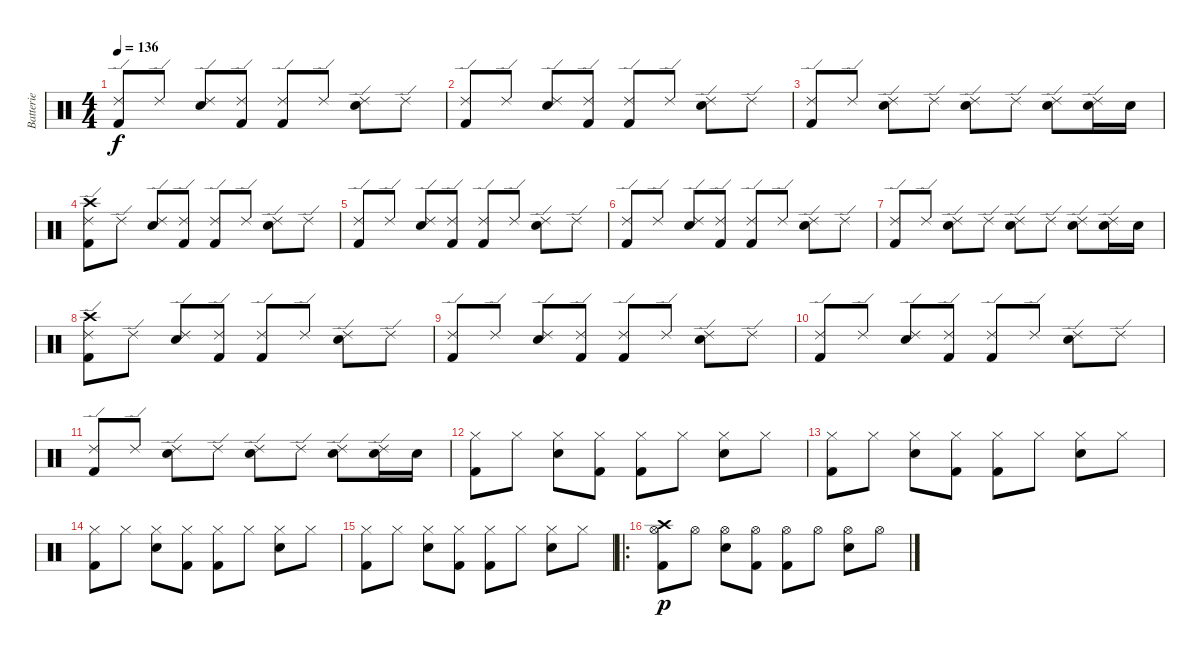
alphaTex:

\track ("Batterie" "Batterie") {instrument percussion}
\staff {score}
\articulation defaults
\ts (4 4)
\tempo 136
\clef neutral
\ks c
("Ride (edge) 2" "Kick (hit) 2").8{dy f} "Ride (edge) 2".8 ("Ride (edge) 2" "Electric Snare (hit)").8 ("Ride (edge) 2" "Kick (hit) 2").8 ("Ride (edge) 2" "Kick (hit) 2").8 "Ride (edge) 2".8 ("Ride (edge) 2" "Electric Snare (hit)").8 "Ride (edge) 2".8 |
("Ride (edge) 2" "Kick (hit) 2").8 "Ride (edge) 2".8 ("Ride (edge) 2" "Electric Snare (hit)").8 ("Ride (edge) 2" "Kick (hit) 2").8 ("Ride (edge) 2" "Kick (hit) 2").8 "Ride (edge) 2".8 ("Ride (edge) 2" "Electric Snare (hit)").8 "Ride (edge) 2".8 |
("Ride (edge) 2" "Kick (hit) 2").8 "Ride (edge) 2".8 ("Ride (edge) 2" "Electric Snare (hit)").8 "Ride (edge) 2".8 ("Ride (edge) 2" "Electric Snare (hit)").8 "Ride (edge) 2".8 ("Ride (edge) 2" "Electric Snare (hit)").8 ("Ride (edge) 2" "Electric Snare (hit)").16 "Electric Snare (hit)".16 |
("Crash high (hit)" "Ride (edge) 2" "Kick (hit) 2").8 "Ride (edge) 2".8 ("Ride (edge) 2" "Electric Snare (hit)").8 ("Ride (edge) 2" "Kick (hit) 2").8 ("Ride (edge) 2" "Kick (hit) 2").8 "Ride (edge) 2".8 ("Ride (edge) 2" "Electric Snare (hit)").8 "Ride (edge) 2".8 |
("Ride (edge) 2" "Kick (hit) 2").8 "Ride (edge) 2".8 ("Ride (edge) 2" "Electric Snare (hit)").8 ("Ride (edge) 2" "Kick (hit) 2").8 ("Ride (edge) 2" "Kick (hit) 2").8 "Ride (edge) 2".8 ("Ride (edge) 2" "Electric Snare (hit)").8 "Ride (edge) 2".8 |
("Ride (edge) 2" "Kick (hit) 2").8 "Ride (edge) 2".8 ("Ride (edge) 2" "Electric Snare (hit)").8 ("Ride (edge) 2" "Kick (hit) 2").8 ("Ride (edge) 2" "Kick (hit) 2").8 "Ride (edge) 2".8 ("Ride (edge) 2" "Electric Snare (hit)").8 "Ride (edge) 2".8 |
("Ride (edge) 2" "Kick (hit) 2").8 "Ride (edge) 2".8 ("Ride (edge) 2" "Electric Snare (hit)").8 "Ride (edge) 2".8 ("Ride (edge) 2" "Electric Snare (hit)").8 "Ride (edge) 2".8 ("Ride (edge) 2" "Electric Snare (hit)").8 ("Ride (edge) 2" "Electric Snare (hit)").16 "Electric Snare (hit)".16 |
("Crash high (hit)" "Ride (edge) 2" "Kick (hit) 2").8 "Ride (edge) 2".8 ("Ride (edge) 2" "Electric Snare (hit)").8 ("Ride (edge) 2" "Kick (hit) 2").8 ("Ride (edge) 2" "Kick (hit) 2").8 "Ride (edge) 2".8 ("Ride (edge) 2" "Electric Snare (hit)").8 "Ride (edge) 2".8 |
("Ride (edge) 2" "Kick (hit) 2").8 "Ride (edge) 2".8 ("Ride (edge) 2" "Electric Snare (hit)").8 ("Ride (edge) 2" "Kick (hit) 2").8 ("Ride (edge) 2" "Kick (hit) 2").8 "Ride (edge) 2".8 ("Ride (edge) 2" "Electric Snare (hit)").8 "Ride (edge) 2".8 |
("Ride (edge) 2" "Kick (hit) 2").8 "Ride (edge) 2".8 ("Ride (edge) 2" "Electric Snare (hit)").8 ("Ride (edge) 2" "Kick (hit) 2").8 ("Ride (edge) 2" "Kick (hit) 2").8 "Ride (edge) 2".8 ("Ride (edge) 2" "Electric Snare (hit)").8 "Ride (edge) 2".8 |
("Ride (edge) 2" "Kick (hit) 2").8 "Ride (edge) 2".8 ("Ride (edge) 2" "Electric Snare (hit)").8 "Ride (edge) 2".8 ("Ride (edge) 2" "Electric Snare (hit)").8 "Ride (edge) 2".8 ("Ride (edge) 2" "Electric Snare (hit)").8 ("Ride (edge) 2" "Electric Snare (hit)").16 "Electric Snare (hit)".16 |
("Hi-Hat (closed)" "Kick (hit) 2").8 "Hi-Hat (closed)".8 ("Hi-Hat (closed)" "Electric Snare (hit)").8 ("Hi-Hat (closed)" "Kick (hit) 2").8 ("Hi-Hat (closed)" "Kick (hit) 2").8 "Hi-Hat (closed)".8 ("Hi-Hat (closed)" "Electric Snare (hit)").8 "Hi-Hat (closed)".8 |
("Hi-Hat (closed)" "Kick (hit) 2").8 "Hi-Hat (closed)".8 ("Hi-Hat (closed)" "Electric Snare (hit)").8 ("Hi-Hat (closed)" "Kick (hit) 2").8 ("Hi-Hat (closed)" "Kick (hit) 2").8 "Hi-Hat (closed)".8 ("Hi-Hat (closed)" "Electric Snare (hit)").8 "Hi-Hat (closed)".8 |
("Hi-Hat (closed)" "Kick (hit) 2").8 "Hi-Hat (closed)".8 ("Hi-Hat (closed)" "Electric Snare (hit)").8 ("Hi-Hat (closed)" "Kick (hit) 2").8 ("Hi-Hat (closed)" "Kick (hit) 2").8 "Hi-Hat (closed)".8 ("Hi-Hat (closed)" "Electric Snare (hit)").8 "Hi-Hat (closed)".8 |
("Hi-Hat (closed)" "Kick (hit) 2").8 "Hi-Hat (closed)".8 ("Hi-Hat (closed)" "Electric Snare (hit)").8 ("Hi-Hat (closed)" "Kick (hit) 2").8 ("Hi-Hat (closed)" "Kick (hit) 2").8 "Hi-Hat (closed)".8 ("Hi-Hat (closed)" "Electric Snare (hit)").8 "Hi-Hat (closed)".8 |
\ro
("Crash high (hit)" "Hi-Hat (open)" "Kick (hit) 2").8{dy p} "Hi-Hat (open)".8 ("Hi-Hat (open)" "Electric Snare (hit)").8 ("Hi-Hat (open)" "Kick (hit) 2").8 ("Hi-Hat (open)" "Kick (hit) 2").8 "Hi-Hat (open)".8 ("Hi-Hat (open)" "Electric Snare (hit)").8 "Hi-Hat (open)".8
